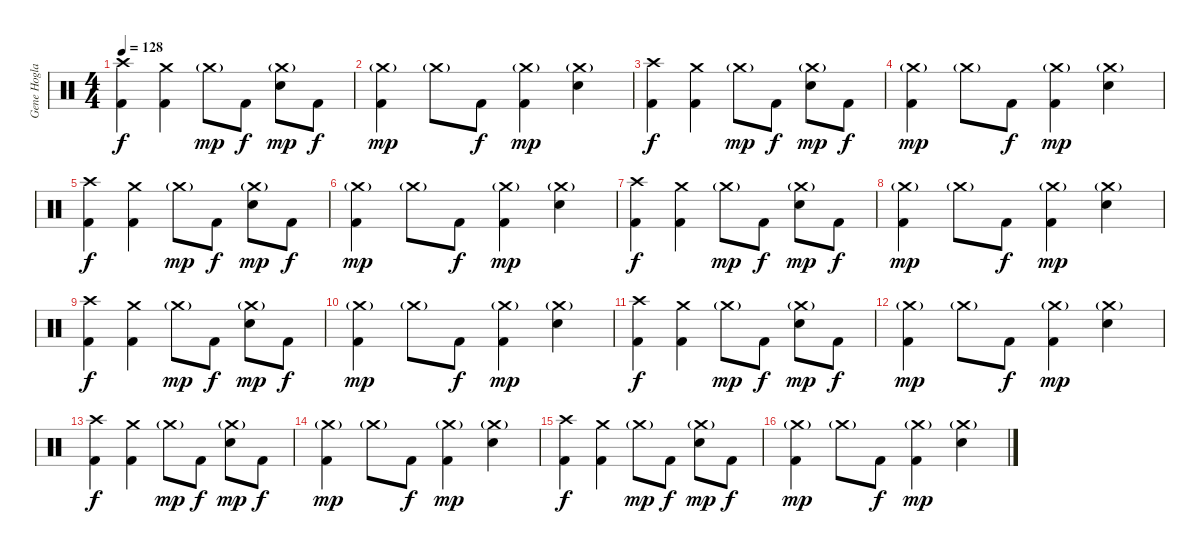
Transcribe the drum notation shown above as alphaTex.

\track ("Gene Hoglan" "Gene Hogla") {instrument percussion}
\staff {score}
\articulation defaults
\ts (4 4)
\tempo 128
\clef neutral
\ks c
("Crash high (hit)" "Kick (hit) 2").4{dy f} ("Crash medium (hit)" "Kick (hit) 2").4 "Crash medium (hit)"{g}.8{dy mp} "Kick (hit) 2".8{dy f} ("Crash medium (hit)"{g} "Electric Snare (hit)").8{dy mp} "Kick (hit) 2".8{dy f} |
("Crash medium (hit)"{g} "Kick (hit) 2").4{dy mp} "Crash medium (hit)"{g}.8 "Kick (hit) 2".8{dy f} ("Crash medium (hit)"{g} "Kick (hit) 2").4{dy mp} ("Crash medium (hit)"{g} "Electric Snare (hit)").4 |
("Crash high (hit)" "Kick (hit) 2").4{dy f} ("Crash medium (hit)" "Kick (hit) 2").4 "Crash medium (hit)"{g}.8{dy mp} "Kick (hit) 2".8{dy f} ("Crash medium (hit)"{g} "Electric Snare (hit)").8{dy mp} "Kick (hit) 2".8{dy f} |
("Crash medium (hit)"{g} "Kick (hit) 2").4{dy mp} "Crash medium (hit)"{g}.8 "Kick (hit) 2".8{dy f} ("Crash medium (hit)"{g} "Kick (hit) 2").4{dy mp} ("Crash medium (hit)"{g} "Electric Snare (hit)").4 |
("Crash high (hit)" "Kick (hit) 2").4{dy f} ("Crash medium (hit)" "Kick (hit) 2").4 "Crash medium (hit)"{g}.8{dy mp} "Kick (hit) 2".8{dy f} ("Crash medium (hit)"{g} "Electric Snare (hit)").8{dy mp} "Kick (hit) 2".8{dy f} |
("Crash medium (hit)"{g} "Kick (hit) 2").4{dy mp} "Crash medium (hit)"{g}.8 "Kick (hit) 2".8{dy f} ("Crash medium (hit)"{g} "Kick (hit) 2").4{dy mp} ("Crash medium (hit)"{g} "Electric Snare (hit)").4 |
("Crash high (hit)" "Kick (hit) 2").4{dy f} ("Crash medium (hit)" "Kick (hit) 2").4 "Crash medium (hit)"{g}.8{dy mp} "Kick (hit) 2".8{dy f} ("Crash medium (hit)"{g} "Electric Snare (hit)").8{dy mp} "Kick (hit) 2".8{dy f} |
("Crash medium (hit)"{g} "Kick (hit) 2").4{dy mp} "Crash medium (hit)"{g}.8 "Kick (hit) 2".8{dy f} ("Crash medium (hit)"{g} "Kick (hit) 2").4{dy mp} ("Crash medium (hit)"{g} "Electric Snare (hit)").4 |
("Crash high (hit)" "Kick (hit) 2").4{dy f} ("Crash medium (hit)" "Kick (hit) 2").4 "Crash medium (hit)"{g}.8{dy mp} "Kick (hit) 2".8{dy f} ("Crash medium (hit)"{g} "Electric Snare (hit)").8{dy mp} "Kick (hit) 2".8{dy f} |
("Crash medium (hit)"{g} "Kick (hit) 2").4{dy mp} "Crash medium (hit)"{g}.8 "Kick (hit) 2".8{dy f} ("Crash medium (hit)"{g} "Kick (hit) 2").4{dy mp} ("Crash medium (hit)"{g} "Electric Snare (hit)").4 |
("Crash high (hit)" "Kick (hit) 2").4{dy f} ("Crash medium (hit)" "Kick (hit) 2").4 "Crash medium (hit)"{g}.8{dy mp} "Kick (hit) 2".8{dy f} ("Crash medium (hit)"{g} "Electric Snare (hit)").8{dy mp} "Kick (hit) 2".8{dy f} |
("Crash medium (hit)"{g} "Kick (hit) 2").4{dy mp} "Crash medium (hit)"{g}.8 "Kick (hit) 2".8{dy f} ("Crash medium (hit)"{g} "Kick (hit) 2").4{dy mp} ("Crash medium (hit)"{g} "Electric Snare (hit)").4 |
("Crash high (hit)" "Kick (hit) 2").4{dy f} ("Crash medium (hit)" "Kick (hit) 2").4 "Crash medium (hit)"{g}.8{dy mp} "Kick (hit) 2".8{dy f} ("Crash medium (hit)"{g} "Electric Snare (hit)").8{dy mp} "Kick (hit) 2".8{dy f} |
("Crash medium (hit)"{g} "Kick (hit) 2").4{dy mp} "Crash medium (hit)"{g}.8 "Kick (hit) 2".8{dy f} ("Crash medium (hit)"{g} "Kick (hit) 2").4{dy mp} ("Crash medium (hit)"{g} "Electric Snare (hit)").4 |
("Crash high (hit)" "Kick (hit) 2").4{dy f} ("Crash medium (hit)" "Kick (hit) 2").4 "Crash medium (hit)"{g}.8{dy mp} "Kick (hit) 2".8{dy f} ("Crash medium (hit)"{g} "Electric Snare (hit)").8{dy mp} "Kick (hit) 2".8{dy f} |
("Crash medium (hit)"{g} "Kick (hit) 2").4{dy mp} "Crash medium (hit)"{g}.8 "Kick (hit) 2".8{dy f} ("Crash medium (hit)"{g} "Kick (hit) 2").4{dy mp} ("Crash medium (hit)"{g} "Electric Snare (hit)").4
